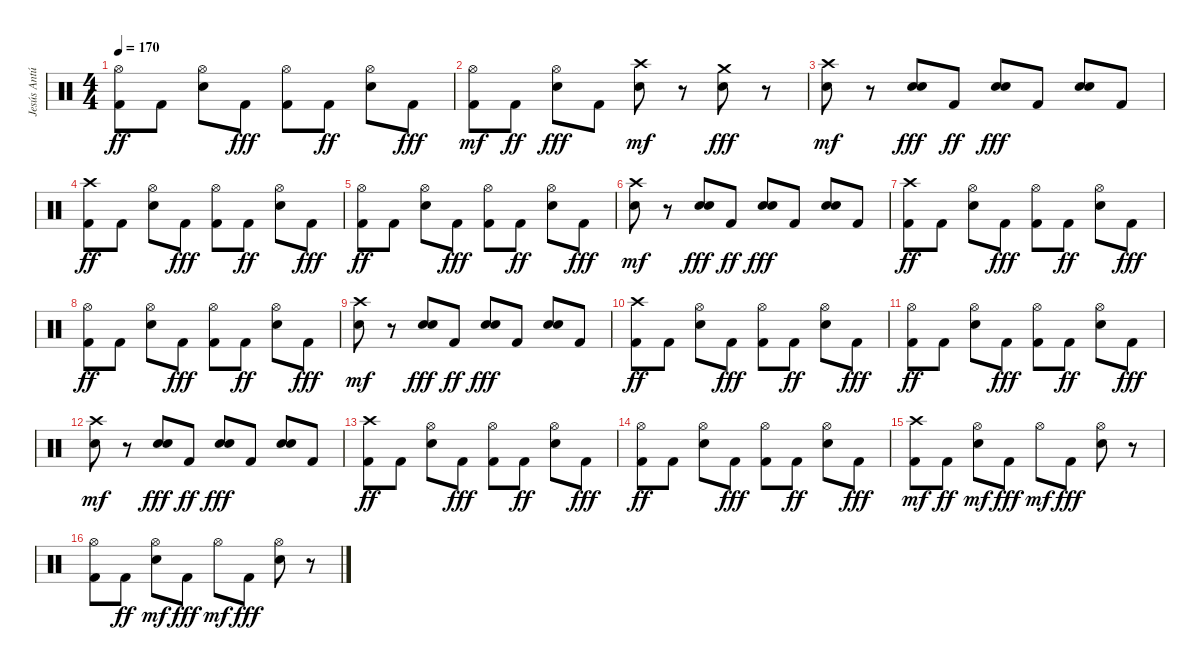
\track ("Jesús Antúnez (Bateria)" "Jesús Antú") {instrument percussion}
\staff {score}
\articulation defaults
\ts (4 4)
\tempo 170
\clef neutral
\ks c
("Kick (hit) 2" "Hi-Hat (open)").8{dy ff} "Kick (hit) 2".8 ("Electric Snare (hit)" "Hi-Hat (open)").8 "Kick (hit) 2".8{dy fff} ("Kick (hit) 2" "Hi-Hat (open)").8 "Kick (hit) 2".8{dy ff} ("Electric Snare (hit)" "Hi-Hat (open)").8 "Kick (hit) 2".8{dy fff} |
("Kick (hit) 2" "Hi-Hat (open)").8{dy mf} "Kick (hit) 2".8{dy ff} ("Electric Snare (hit)" "Hi-Hat (open)").8{dy fff} "Kick (hit) 2".8 ("Electric Snare (hit)" "Crash high (hit)").8{dy mf} r.8 ("Electric Snare (hit)" "Crash medium (hit)").8{dy fff} r.8 |
("Electric Snare (hit)" "Crash high (hit)").8{dy mf} r.8 ("Electric Snare (hit)" "Electric Snare (hit)").8{dy fff} "Kick (hit) 2".8{dy ff} ("Electric Snare (hit)" "Electric Snare (hit)").8{dy fff} "Kick (hit) 2".8 ("Electric Snare (hit)" "Electric Snare (hit)").8 "Kick (hit) 2".8 |
("Kick (hit) 2" "Crash high (hit)").8{dy ff} "Kick (hit) 2".8 ("Electric Snare (hit)" "Hi-Hat (open)").8 "Kick (hit) 2".8{dy fff} ("Kick (hit) 2" "Hi-Hat (open)").8 "Kick (hit) 2".8{dy ff} ("Electric Snare (hit)" "Hi-Hat (open)").8 "Kick (hit) 2".8{dy fff} |
("Kick (hit) 2" "Hi-Hat (open)").8{dy ff} "Kick (hit) 2".8 ("Electric Snare (hit)" "Hi-Hat (open)").8 "Kick (hit) 2".8{dy fff} ("Kick (hit) 2" "Hi-Hat (open)").8 "Kick (hit) 2".8{dy ff} ("Electric Snare (hit)" "Hi-Hat (open)").8 "Kick (hit) 2".8{dy fff} |
("Electric Snare (hit)" "Crash high (hit)").8{dy mf} r.8 ("Electric Snare (hit)" "Electric Snare (hit)").8{dy fff} "Kick (hit) 2".8{dy ff} ("Electric Snare (hit)" "Electric Snare (hit)").8{dy fff} "Kick (hit) 2".8 ("Electric Snare (hit)" "Electric Snare (hit)").8 "Kick (hit) 2".8 |
("Kick (hit) 2" "Crash high (hit)").8{dy ff} "Kick (hit) 2".8 ("Electric Snare (hit)" "Hi-Hat (open)").8 "Kick (hit) 2".8{dy fff} ("Kick (hit) 2" "Hi-Hat (open)").8 "Kick (hit) 2".8{dy ff} ("Electric Snare (hit)" "Hi-Hat (open)").8 "Kick (hit) 2".8{dy fff} |
("Kick (hit) 2" "Hi-Hat (open)").8{dy ff} "Kick (hit) 2".8 ("Electric Snare (hit)" "Hi-Hat (open)").8 "Kick (hit) 2".8{dy fff} ("Kick (hit) 2" "Hi-Hat (open)").8 "Kick (hit) 2".8{dy ff} ("Electric Snare (hit)" "Hi-Hat (open)").8 "Kick (hit) 2".8{dy fff} |
("Electric Snare (hit)" "Crash high (hit)").8{dy mf} r.8 ("Electric Snare (hit)" "Electric Snare (hit)").8{dy fff} "Kick (hit) 2".8{dy ff} ("Electric Snare (hit)" "Electric Snare (hit)").8{dy fff} "Kick (hit) 2".8 ("Electric Snare (hit)" "Electric Snare (hit)").8 "Kick (hit) 2".8 |
("Kick (hit) 2" "Crash high (hit)").8{dy ff} "Kick (hit) 2".8 ("Electric Snare (hit)" "Hi-Hat (open)").8 "Kick (hit) 2".8{dy fff} ("Kick (hit) 2" "Hi-Hat (open)").8 "Kick (hit) 2".8{dy ff} ("Electric Snare (hit)" "Hi-Hat (open)").8 "Kick (hit) 2".8{dy fff} |
("Kick (hit) 2" "Hi-Hat (open)").8{dy ff} "Kick (hit) 2".8 ("Electric Snare (hit)" "Hi-Hat (open)").8 "Kick (hit) 2".8{dy fff} ("Kick (hit) 2" "Hi-Hat (open)").8 "Kick (hit) 2".8{dy ff} ("Electric Snare (hit)" "Hi-Hat (open)").8 "Kick (hit) 2".8{dy fff} |
("Electric Snare (hit)" "Crash high (hit)").8{dy mf} r.8 ("Electric Snare (hit)" "Electric Snare (hit)").8{dy fff} "Kick (hit) 2".8{dy ff} ("Electric Snare (hit)" "Electric Snare (hit)").8{dy fff} "Kick (hit) 2".8 ("Electric Snare (hit)" "Electric Snare (hit)").8 "Kick (hit) 2".8 |
("Kick (hit) 2" "Crash high (hit)").8{dy ff} "Kick (hit) 2".8 ("Electric Snare (hit)" "Hi-Hat (open)").8 "Kick (hit) 2".8{dy fff} ("Kick (hit) 2" "Hi-Hat (open)").8 "Kick (hit) 2".8{dy ff} ("Electric Snare (hit)" "Hi-Hat (open)").8 "Kick (hit) 2".8{dy fff} |
("Kick (hit) 2" "Hi-Hat (open)").8{dy ff} "Kick (hit) 2".8 ("Electric Snare (hit)" "Hi-Hat (open)").8 "Kick (hit) 2".8{dy fff} ("Kick (hit) 2" "Hi-Hat (open)").8 "Kick (hit) 2".8{dy ff} ("Electric Snare (hit)" "Hi-Hat (open)").8 "Kick (hit) 2".8{dy fff} |
("Kick (hit) 2" "Crash high (hit)").8{dy mf} "Kick (hit) 2".8{dy ff} ("Electric Snare (hit)" "Hi-Hat (open)").8{dy mf} "Kick (hit) 2".8{dy fff} "Hi-Hat (open)".8{dy mf} "Kick (hit) 2".8{dy fff} ("Electric Snare (hit)" "Hi-Hat (open)").8 r.8 |
("Kick (hit) 2" "Hi-Hat (open)").8 "Kick (hit) 2".8{dy ff} ("Electric Snare (hit)" "Hi-Hat (open)").8{dy mf} "Kick (hit) 2".8{dy fff} "Hi-Hat (open)".8{dy mf} "Kick (hit) 2".8{dy fff} ("Electric Snare (hit)" "Hi-Hat (open)").8 r.8
